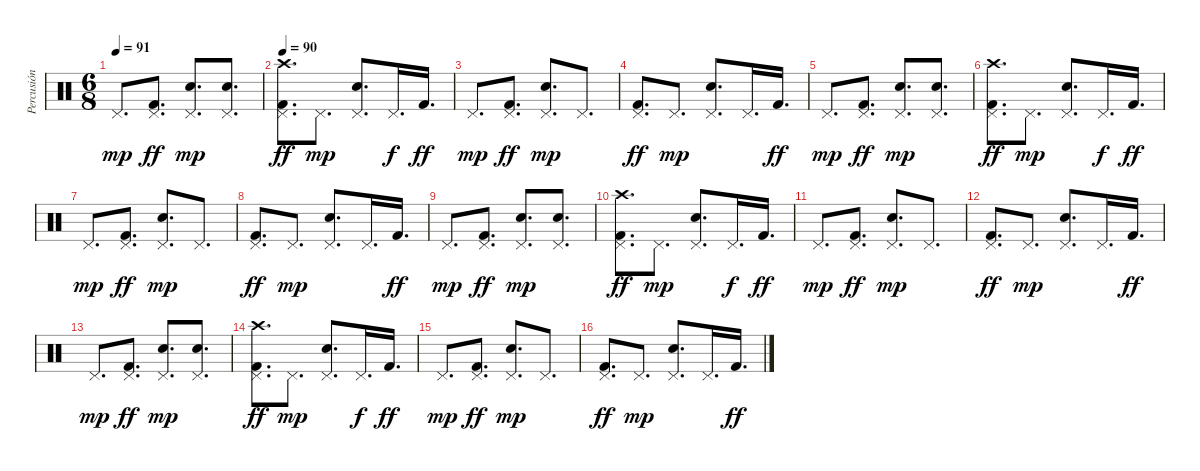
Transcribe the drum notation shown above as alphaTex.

\track ("Percusión" "Percusión") {instrument percussion}
\staff {score}
\articulation defaults
\ts (6 8)
\tempo 91
\clef neutral
\ks c "Pedal Hi-Hat (hit)".8{d dy mp}
("Pedal Hi-Hat (hit)" "Kick (hit) 2").8{d dy ff} ("Pedal Hi-Hat (hit)" "Electric Snare (hit)").8{d dy mp} ("Pedal Hi-Hat (hit)" "Electric Snare (hit)").8{d} |
\tempo 90
("Crash high (hit)" "Pedal Hi-Hat (hit)" "Kick (hit) 2").8{d dy ff} "Pedal Hi-Hat (hit)".8{d dy mp} ("Pedal Hi-Hat (hit)" "Electric Snare (hit)").8{d} "Pedal Hi-Hat (hit)".16{d dy f} "Kick (hit) 2".16{d dy ff} |
"Pedal Hi-Hat (hit)".8{d dy mp} ("Pedal Hi-Hat (hit)" "Kick (hit) 2").8{d dy ff} ("Pedal Hi-Hat (hit)" "Electric Snare (hit)").8{d dy mp} "Pedal Hi-Hat (hit)".8{d} |
("Pedal Hi-Hat (hit)" "Kick (hit) 2").8{d dy ff} "Pedal Hi-Hat (hit)".8{d dy mp} ("Pedal Hi-Hat (hit)" "Electric Snare (hit)").8{d} "Pedal Hi-Hat (hit)".16{d} "Kick (hit) 2".16{d dy ff} |
"Pedal Hi-Hat (hit)".8{d dy mp} ("Pedal Hi-Hat (hit)" "Kick (hit) 2").8{d dy ff} ("Pedal Hi-Hat (hit)" "Electric Snare (hit)").8{d dy mp} ("Pedal Hi-Hat (hit)" "Electric Snare (hit)").8{d} |
("Crash high (hit)" "Pedal Hi-Hat (hit)" "Kick (hit) 2").8{d dy ff} "Pedal Hi-Hat (hit)".8{d dy mp} ("Pedal Hi-Hat (hit)" "Electric Snare (hit)").8{d} "Pedal Hi-Hat (hit)".16{d dy f} "Kick (hit) 2".16{d dy ff} |
"Pedal Hi-Hat (hit)".8{d dy mp} ("Pedal Hi-Hat (hit)" "Kick (hit) 2").8{d dy ff} ("Pedal Hi-Hat (hit)" "Electric Snare (hit)").8{d dy mp} "Pedal Hi-Hat (hit)".8{d} |
("Pedal Hi-Hat (hit)" "Kick (hit) 2").8{d dy ff} "Pedal Hi-Hat (hit)".8{d dy mp} ("Pedal Hi-Hat (hit)" "Electric Snare (hit)").8{d} "Pedal Hi-Hat (hit)".16{d} "Kick (hit) 2".16{d dy ff} |
"Pedal Hi-Hat (hit)".8{d dy mp} ("Pedal Hi-Hat (hit)" "Kick (hit) 2").8{d dy ff} ("Pedal Hi-Hat (hit)" "Electric Snare (hit)").8{d dy mp} ("Pedal Hi-Hat (hit)" "Electric Snare (hit)").8{d} |
("Crash high (hit)" "Pedal Hi-Hat (hit)" "Kick (hit) 2").8{d dy ff} "Pedal Hi-Hat (hit)".8{d dy mp} ("Pedal Hi-Hat (hit)" "Electric Snare (hit)").8{d} "Pedal Hi-Hat (hit)".16{d dy f} "Kick (hit) 2".16{d dy ff} |
"Pedal Hi-Hat (hit)".8{d dy mp} ("Pedal Hi-Hat (hit)" "Kick (hit) 2").8{d dy ff} ("Pedal Hi-Hat (hit)" "Electric Snare (hit)").8{d dy mp} "Pedal Hi-Hat (hit)".8{d} |
("Pedal Hi-Hat (hit)" "Kick (hit) 2").8{d dy ff} "Pedal Hi-Hat (hit)".8{d dy mp} ("Pedal Hi-Hat (hit)" "Electric Snare (hit)").8{d} "Pedal Hi-Hat (hit)".16{d} "Kick (hit) 2".16{d dy ff} |
"Pedal Hi-Hat (hit)".8{d dy mp} ("Pedal Hi-Hat (hit)" "Kick (hit) 2").8{d dy ff} ("Pedal Hi-Hat (hit)" "Electric Snare (hit)").8{d dy mp} ("Pedal Hi-Hat (hit)" "Electric Snare (hit)").8{d} |
("Crash high (hit)" "Pedal Hi-Hat (hit)" "Kick (hit) 2").8{d dy ff} "Pedal Hi-Hat (hit)".8{d dy mp} ("Pedal Hi-Hat (hit)" "Electric Snare (hit)").8{d} "Pedal Hi-Hat (hit)".16{d dy f} "Kick (hit) 2".16{d dy ff} |
"Pedal Hi-Hat (hit)".8{d dy mp} ("Pedal Hi-Hat (hit)" "Kick (hit) 2").8{d dy ff} ("Pedal Hi-Hat (hit)" "Electric Snare (hit)").8{d dy mp} "Pedal Hi-Hat (hit)".8{d} |
("Pedal Hi-Hat (hit)" "Kick (hit) 2").8{d dy ff} "Pedal Hi-Hat (hit)".8{d dy mp} ("Pedal Hi-Hat (hit)" "Electric Snare (hit)").8{d} "Pedal Hi-Hat (hit)".16{d} "Kick (hit) 2".16{d dy ff}
